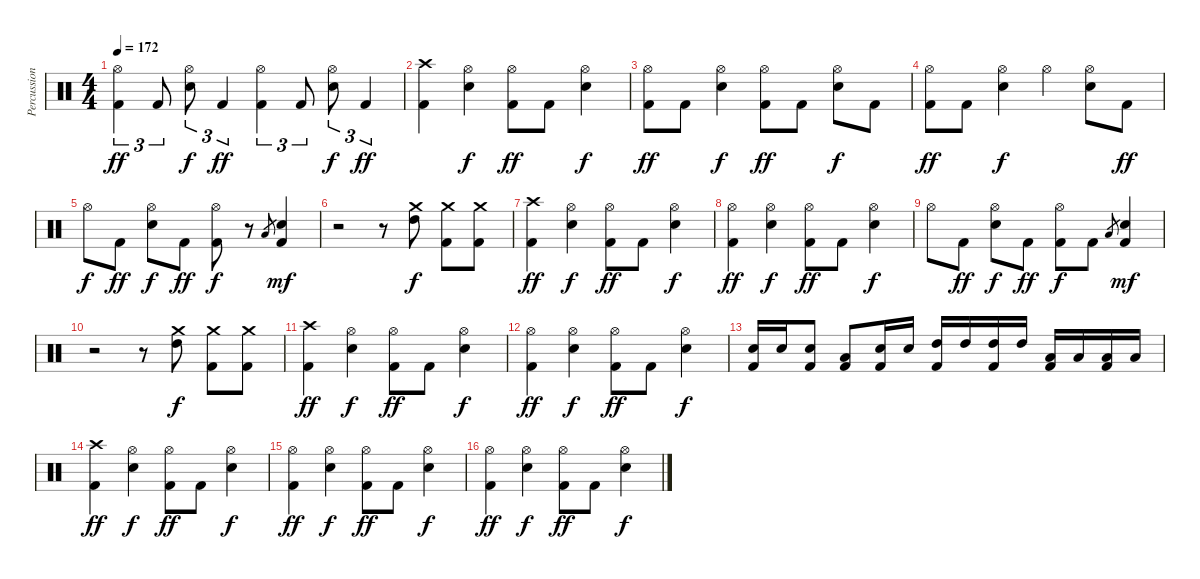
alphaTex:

\track ("Percussion" "Percussion") {instrument percussion}
\staff {score}
\articulation defaults
\ts (4 4)
\tempo 172
\clef neutral
\ks c
("Hi-Hat (open)" "Kick (hit) 2").4{tu (3 2) dy ff} "Kick (hit) 2".8{tu (3 2)} ("Hi-Hat (open)" "Snare (hit) 2").8{tu (3 2) dy f} "Kick (hit) 2".4{tu (3 2) dy ff} ("Hi-Hat (open)" "Kick (hit) 2").4{tu (3 2)} "Kick (hit) 2".8{tu (3 2)} ("Hi-Hat (open)" "Snare (hit) 2").8{tu (3 2) dy f} "Kick (hit) 2".4{tu (3 2) dy ff} |
("Crash high (hit)" "Kick (hit) 2").4 ("Hi-Hat (open)" "Snare (hit) 2").4{dy f} ("Hi-Hat (open)" "Kick (hit) 2").8{dy ff} "Kick (hit) 2".8 ("Hi-Hat (open)" "Snare (hit) 2").4{dy f} |
("Hi-Hat (open)" "Kick (hit) 2").8{dy ff} "Kick (hit) 2".8 ("Hi-Hat (open)" "Snare (hit) 2").4{dy f} ("Hi-Hat (open)" "Kick (hit) 2").8{dy ff} "Kick (hit) 2".8 ("Hi-Hat (open)" "Snare (hit) 2").8{dy f} "Kick (hit) 2".8 |
("Hi-Hat (open)" "Kick (hit) 2").8{dy ff} "Kick (hit) 2".8 ("Hi-Hat (open)" "Snare (hit) 2").4{dy f} "Hi-Hat (open)".4 ("Hi-Hat (open)" "Snare (hit) 2").8 "Kick (hit) 2".8{dy ff} |
"Hi-Hat (open)".8{dy f} "Kick (hit) 2".8{dy ff} ("Hi-Hat (open)" "Snare (hit) 2").8{dy f} "Kick (hit) 2".8{dy ff} ("Hi-Hat (open)" "Kick (hit) 2").8{dy f} r.8 "Low Tom (hit)".8{gr} ("Snare (hit) 2" "Kick (hit) 2").4{dy mf} |
r.2 r.8 ("Crash medium (hit)" "High Tom (hit)").8{dy f} ("Crash medium (hit)" "Kick (hit) 2").8 ("Crash medium (hit)" "Kick (hit) 2").8 |
("Crash high (hit)" "Kick (hit) 2").4{dy ff} ("Hi-Hat (open)" "Snare (hit) 2").4{dy f} ("Hi-Hat (open)" "Kick (hit) 2").8{dy ff} "Kick (hit) 2".8 ("Hi-Hat (open)" "Snare (hit) 2").4{dy f} |
("Hi-Hat (open)" "Kick (hit) 2").4{dy ff} ("Hi-Hat (open)" "Snare (hit) 2").4{dy f} ("Hi-Hat (open)" "Kick (hit) 2").8{dy ff} "Kick (hit) 2".8 ("Hi-Hat (open)" "Snare (hit) 2").4{dy f} |
"Hi-Hat (open)".8 "Kick (hit) 2".8{dy ff} ("Hi-Hat (open)" "Snare (hit) 2").8{dy f} "Kick (hit) 2".8{dy ff} ("Hi-Hat (open)" "Kick (hit) 2").8{dy f} "Kick (hit) 2".8 "Low Tom (hit)".8{gr} ("Snare (hit) 2" "Kick (hit) 2").4{dy mf} |
r.2 r.8 ("Crash medium (hit)" "High Tom (hit)").8{dy f} ("Crash medium (hit)" "Kick (hit) 2").8 ("Crash medium (hit)" "Kick (hit) 2").8 |
("Crash high (hit)" "Kick (hit) 2").4{dy ff} ("Hi-Hat (open)" "Snare (hit) 2").4{dy f} ("Hi-Hat (open)" "Kick (hit) 2").8{dy ff} "Kick (hit) 2".8 ("Hi-Hat (open)" "Snare (hit) 2").4{dy f} |
("Hi-Hat (open)" "Kick (hit) 2").4{dy ff} ("Hi-Hat (open)" "Snare (hit) 2").4{dy f} ("Hi-Hat (open)" "Kick (hit) 2").8{dy ff} "Kick (hit) 2".8 ("Hi-Hat (open)" "Snare (hit) 2").4{dy f} |
("Snare (hit) 2" "Kick (hit) 2").16 "Snare (hit) 2".16 ("Snare (hit) 2" "Kick (hit) 2").8 ("Low Tom (hit)" "Kick (hit) 2").8 ("Snare (hit) 2" "Kick (hit) 2").16 "Snare (hit) 2".16 ("High Tom (hit)" "Kick (hit) 2").16 "High Tom (hit)".16 ("High Tom (hit)" "Kick (hit) 2").16 "High Tom (hit)".16 ("Low Tom (hit)" "Kick (hit) 2").16 "Low Tom (hit)".16 ("Low Tom (hit)" "Kick (hit) 2").16 "Low Tom (hit)".16 |
("Crash high (hit)" "Kick (hit) 2").4{dy ff} ("Hi-Hat (open)" "Snare (hit) 2").4{dy f} ("Hi-Hat (open)" "Kick (hit) 2").8{dy ff} "Kick (hit) 2".8 ("Hi-Hat (open)" "Snare (hit) 2").4{dy f} |
("Hi-Hat (open)" "Kick (hit) 2").4{dy ff} ("Hi-Hat (open)" "Snare (hit) 2").4{dy f} ("Hi-Hat (open)" "Kick (hit) 2").8{dy ff} "Kick (hit) 2".8 ("Hi-Hat (open)" "Snare (hit) 2").4{dy f} |
("Hi-Hat (open)" "Kick (hit) 2").4{dy ff} ("Hi-Hat (open)" "Snare (hit) 2").4{dy f} ("Hi-Hat (open)" "Kick (hit) 2").8{dy ff} "Kick (hit) 2".8 ("Hi-Hat (open)" "Snare (hit) 2").4{dy f}
